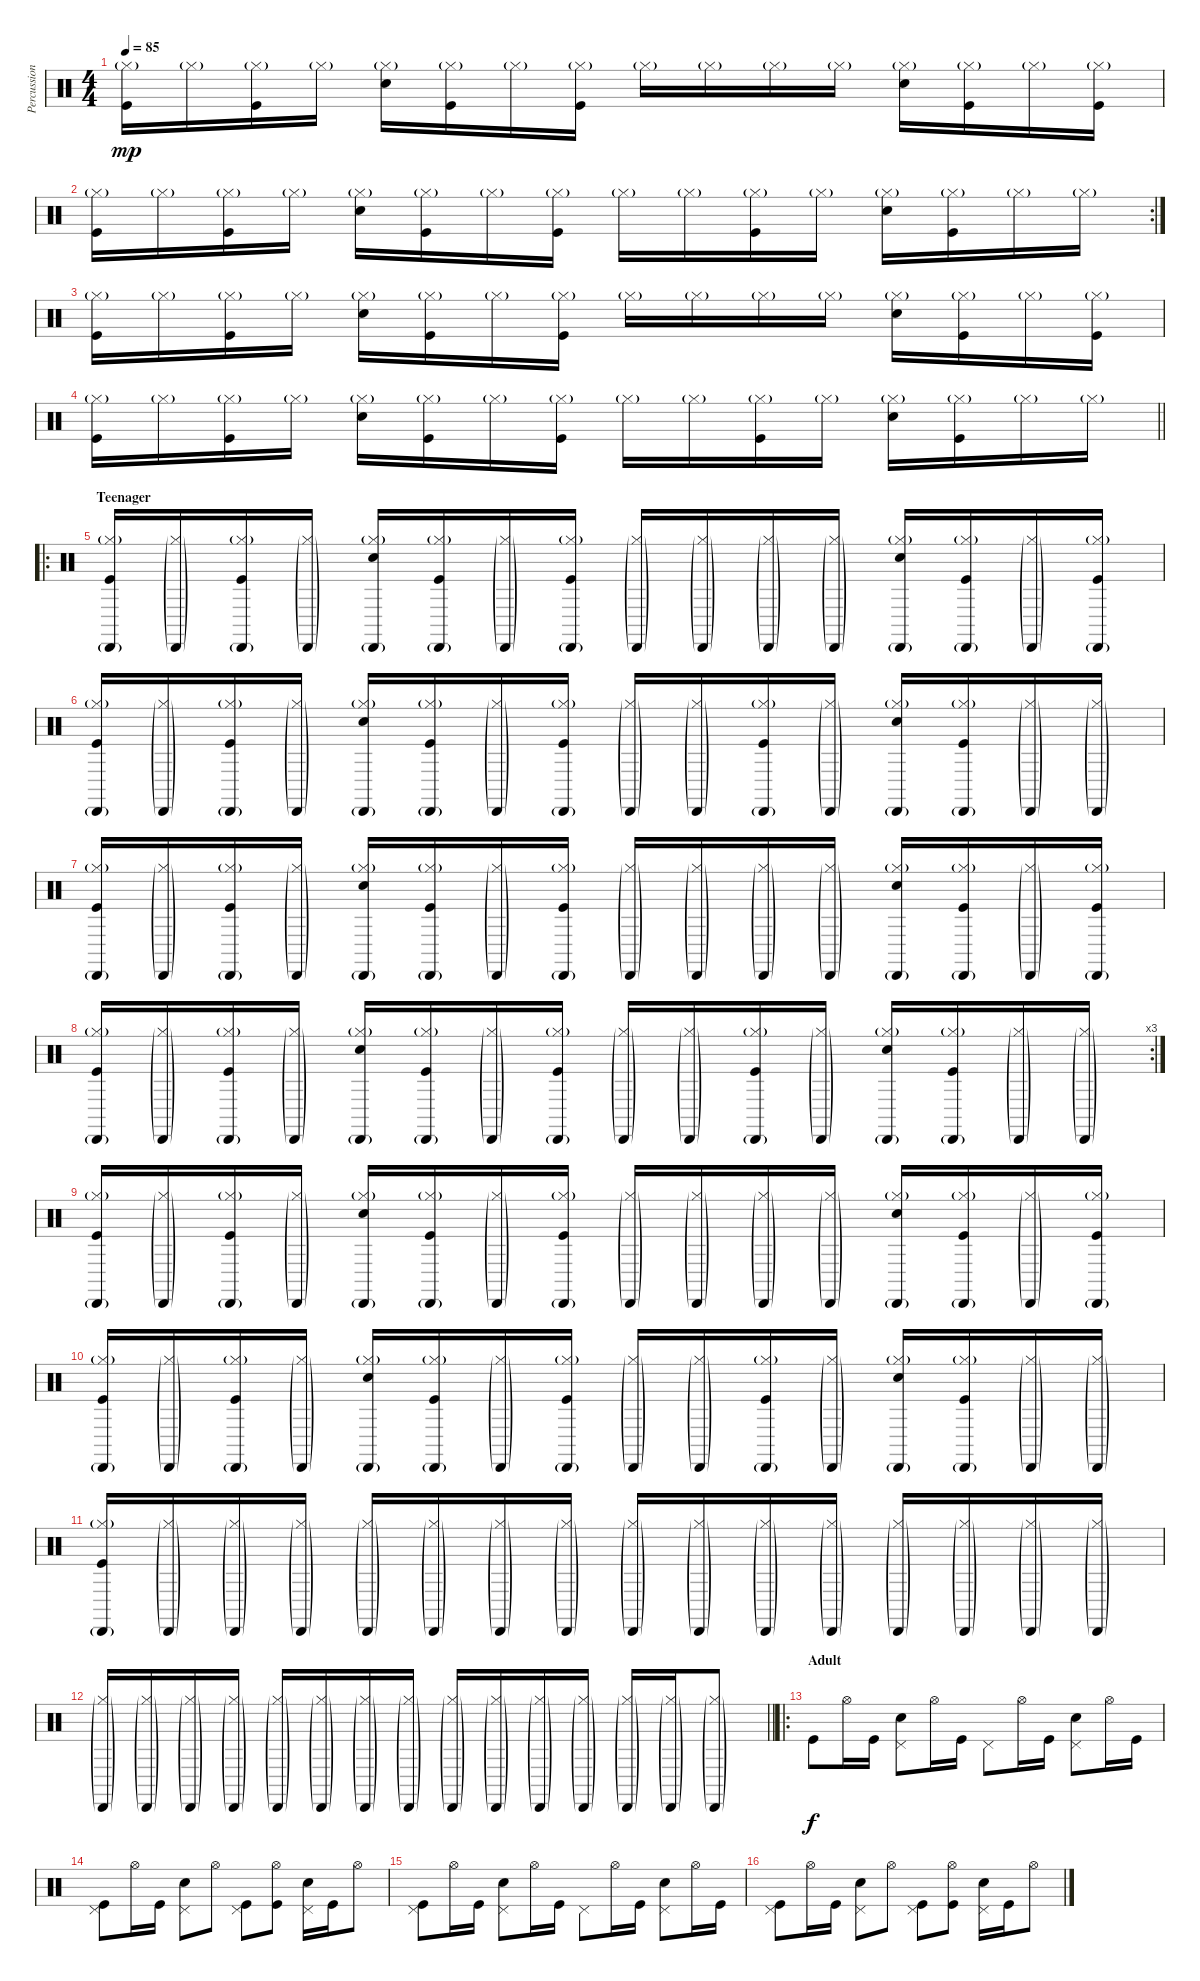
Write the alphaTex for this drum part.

\track ("Percussion" "Percussion") {instrument percussion}
\staff {score}
\articulation defaults
\ts (4 4)
\tempo 85
\clef neutral
\ks c
("Hi-Hat (closed)"{g} "Kick (hit)").16{dy mp} "Hi-Hat (closed)"{g}.16 ("Hi-Hat (closed)"{g} "Kick (hit)").16 "Hi-Hat (closed)"{g}.16 ("Hi-Hat (closed)"{g} "Hand Clap (hit)").16 ("Hi-Hat (closed)"{g} "Kick (hit)").16 "Hi-Hat (closed)"{g}.16 ("Hi-Hat (closed)"{g} "Kick (hit)").16 "Hi-Hat (closed)"{g}.16 "Hi-Hat (closed)"{g}.16 "Hi-Hat (closed)"{g}.16 "Hi-Hat (closed)"{g}.16 ("Hi-Hat (closed)"{g} "Hand Clap (hit)").16 ("Hi-Hat (closed)"{g} "Kick (hit)").16 "Hi-Hat (closed)"{g}.16 ("Hi-Hat (closed)"{g} "Kick (hit)").16 |
\rc 2
("Hi-Hat (closed)"{g} "Kick (hit)").16 "Hi-Hat (closed)"{g}.16 ("Hi-Hat (closed)"{g} "Kick (hit)").16 "Hi-Hat (closed)"{g}.16 ("Hi-Hat (closed)"{g} "Hand Clap (hit)").16 ("Hi-Hat (closed)"{g} "Kick (hit)").16 "Hi-Hat (closed)"{g}.16 ("Hi-Hat (closed)"{g} "Kick (hit)").16 "Hi-Hat (closed)"{g}.16 "Hi-Hat (closed)"{g}.16 ("Hi-Hat (closed)"{g} "Kick (hit)").16 "Hi-Hat (closed)"{g}.16 ("Hi-Hat (closed)"{g} "Hand Clap (hit)").16 ("Hi-Hat (closed)"{g} "Kick (hit)").16 "Hi-Hat (closed)"{g}.16 "Hi-Hat (closed)"{g}.16 |
("Hi-Hat (closed)"{g} "Kick (hit)").16 "Hi-Hat (closed)"{g}.16 ("Hi-Hat (closed)"{g} "Kick (hit)").16 "Hi-Hat (closed)"{g}.16 ("Hi-Hat (closed)"{g} "Hand Clap (hit)").16 ("Hi-Hat (closed)"{g} "Kick (hit)").16 "Hi-Hat (closed)"{g}.16 ("Hi-Hat (closed)"{g} "Kick (hit)").16 "Hi-Hat (closed)"{g}.16 "Hi-Hat (closed)"{g}.16 "Hi-Hat (closed)"{g}.16 "Hi-Hat (closed)"{g}.16 ("Hi-Hat (closed)"{g} "Hand Clap (hit)").16 ("Hi-Hat (closed)"{g} "Kick (hit)").16 "Hi-Hat (closed)"{g}.16 ("Hi-Hat (closed)"{g} "Kick (hit)").16 |
\barLineRight lightlight
("Hi-Hat (closed)"{g} "Kick (hit)").16 "Hi-Hat (closed)"{g}.16 ("Hi-Hat (closed)"{g} "Kick (hit)").16 "Hi-Hat (closed)"{g}.16 ("Hi-Hat (closed)"{g} "Hand Clap (hit)").16 ("Hi-Hat (closed)"{g} "Kick (hit)").16 "Hi-Hat (closed)"{g}.16 ("Hi-Hat (closed)"{g} "Kick (hit)").16 "Hi-Hat (closed)"{g}.16 "Hi-Hat (closed)"{g}.16 ("Hi-Hat (closed)"{g} "Kick (hit)").16 "Hi-Hat (closed)"{g}.16 ("Hi-Hat (closed)"{g} "Hand Clap (hit)").16 ("Hi-Hat (closed)"{g} "Kick (hit)").16 "Hi-Hat (closed)"{g}.16 "Hi-Hat (closed)"{g}.16 |
\ro
\section ("" "Teenager")
("Hi-Hat (closed)"{g} "Cabasa (hit)"{g} "Kick (hit)").16 ("Hi-Hat (closed)"{g} "Cabasa (hit)"{g}).16 ("Hi-Hat (closed)"{g} "Cabasa (hit)"{g} "Kick (hit)").16 ("Hi-Hat (closed)"{g} "Cabasa (hit)"{g}).16 ("Hi-Hat (closed)"{g} "Cabasa (hit)"{g} "Hand Clap (hit)").16 ("Hi-Hat (closed)"{g} "Cabasa (hit)"{g} "Kick (hit)").16 ("Hi-Hat (closed)"{g} "Cabasa (hit)"{g}).16 ("Hi-Hat (closed)"{g} "Cabasa (hit)"{g} "Kick (hit)").16 ("Hi-Hat (closed)"{g} "Cabasa (hit)"{g}).16 ("Hi-Hat (closed)"{g} "Cabasa (hit)"{g}).16 ("Hi-Hat (closed)"{g} "Cabasa (hit)"{g}).16 ("Hi-Hat (closed)"{g} "Cabasa (hit)"{g}).16 ("Hi-Hat (closed)"{g} "Cabasa (hit)"{g} "Hand Clap (hit)").16 ("Hi-Hat (closed)"{g} "Cabasa (hit)"{g} "Kick (hit)").16 ("Hi-Hat (closed)"{g} "Cabasa (hit)"{g}).16 ("Hi-Hat (closed)"{g} "Cabasa (hit)"{g} "Kick (hit)").16 |
("Hi-Hat (closed)"{g} "Cabasa (hit)"{g} "Kick (hit)").16 ("Hi-Hat (closed)"{g} "Cabasa (hit)"{g}).16 ("Hi-Hat (closed)"{g} "Cabasa (hit)"{g} "Kick (hit)").16 ("Hi-Hat (closed)"{g} "Cabasa (hit)"{g}).16 ("Hi-Hat (closed)"{g} "Cabasa (hit)"{g} "Hand Clap (hit)").16 ("Hi-Hat (closed)"{g} "Cabasa (hit)"{g} "Kick (hit)").16 ("Hi-Hat (closed)"{g} "Cabasa (hit)"{g}).16 ("Hi-Hat (closed)"{g} "Cabasa (hit)"{g} "Kick (hit)").16 ("Hi-Hat (closed)"{g} "Cabasa (hit)"{g}).16 ("Hi-Hat (closed)"{g} "Cabasa (hit)"{g}).16 ("Hi-Hat (closed)"{g} "Cabasa (hit)"{g} "Kick (hit)").16 ("Hi-Hat (closed)"{g} "Cabasa (hit)"{g}).16 ("Hi-Hat (closed)"{g} "Cabasa (hit)"{g} "Hand Clap (hit)").16 ("Hi-Hat (closed)"{g} "Cabasa (hit)"{g} "Kick (hit)").16 ("Hi-Hat (closed)"{g} "Cabasa (hit)"{g}).16 ("Hi-Hat (closed)"{g} "Cabasa (hit)"{g}).16 |
("Hi-Hat (closed)"{g} "Cabasa (hit)"{g} "Kick (hit)").16 ("Hi-Hat (closed)"{g} "Cabasa (hit)"{g}).16 ("Hi-Hat (closed)"{g} "Cabasa (hit)"{g} "Kick (hit)").16 ("Hi-Hat (closed)"{g} "Cabasa (hit)"{g}).16 ("Hi-Hat (closed)"{g} "Cabasa (hit)"{g} "Hand Clap (hit)").16 ("Hi-Hat (closed)"{g} "Cabasa (hit)"{g} "Kick (hit)").16 ("Hi-Hat (closed)"{g} "Cabasa (hit)"{g}).16 ("Hi-Hat (closed)"{g} "Cabasa (hit)"{g} "Kick (hit)").16 ("Hi-Hat (closed)"{g} "Cabasa (hit)"{g}).16 ("Hi-Hat (closed)"{g} "Cabasa (hit)"{g}).16 ("Hi-Hat (closed)"{g} "Cabasa (hit)"{g}).16 ("Hi-Hat (closed)"{g} "Cabasa (hit)"{g}).16 ("Hi-Hat (closed)"{g} "Cabasa (hit)"{g} "Hand Clap (hit)").16 ("Hi-Hat (closed)"{g} "Cabasa (hit)"{g} "Kick (hit)").16 ("Hi-Hat (closed)"{g} "Cabasa (hit)"{g}).16 ("Hi-Hat (closed)"{g} "Cabasa (hit)"{g} "Kick (hit)").16 |
\rc 3
("Hi-Hat (closed)"{g} "Cabasa (hit)"{g} "Kick (hit)").16 ("Hi-Hat (closed)"{g} "Cabasa (hit)"{g}).16 ("Hi-Hat (closed)"{g} "Cabasa (hit)"{g} "Kick (hit)").16 ("Hi-Hat (closed)"{g} "Cabasa (hit)"{g}).16 ("Hi-Hat (closed)"{g} "Cabasa (hit)"{g} "Hand Clap (hit)").16 ("Hi-Hat (closed)"{g} "Cabasa (hit)"{g} "Kick (hit)").16 ("Hi-Hat (closed)"{g} "Cabasa (hit)"{g}).16 ("Hi-Hat (closed)"{g} "Cabasa (hit)"{g} "Kick (hit)").16 ("Hi-Hat (closed)"{g} "Cabasa (hit)"{g}).16 ("Hi-Hat (closed)"{g} "Cabasa (hit)"{g}).16 ("Hi-Hat (closed)"{g} "Cabasa (hit)"{g} "Kick (hit)").16 ("Hi-Hat (closed)"{g} "Cabasa (hit)"{g}).16 ("Hi-Hat (closed)"{g} "Cabasa (hit)"{g} "Hand Clap (hit)").16 ("Hi-Hat (closed)"{g} "Cabasa (hit)"{g} "Kick (hit)").16 ("Hi-Hat (closed)"{g} "Cabasa (hit)"{g}).16 ("Hi-Hat (closed)"{g} "Cabasa (hit)"{g}).16 |
("Hi-Hat (closed)"{g} "Cabasa (hit)"{g} "Kick (hit)").16 ("Hi-Hat (closed)"{g} "Cabasa (hit)"{g}).16 ("Hi-Hat (closed)"{g} "Cabasa (hit)"{g} "Kick (hit)").16 ("Hi-Hat (closed)"{g} "Cabasa (hit)"{g}).16 ("Hi-Hat (closed)"{g} "Cabasa (hit)"{g} "Hand Clap (hit)").16 ("Hi-Hat (closed)"{g} "Cabasa (hit)"{g} "Kick (hit)").16 ("Hi-Hat (closed)"{g} "Cabasa (hit)"{g}).16 ("Hi-Hat (closed)"{g} "Cabasa (hit)"{g} "Kick (hit)").16 ("Hi-Hat (closed)"{g} "Cabasa (hit)"{g}).16 ("Hi-Hat (closed)"{g} "Cabasa (hit)"{g}).16 ("Hi-Hat (closed)"{g} "Cabasa (hit)"{g}).16 ("Hi-Hat (closed)"{g} "Cabasa (hit)"{g}).16 ("Hi-Hat (closed)"{g} "Cabasa (hit)"{g} "Hand Clap (hit)").16 ("Hi-Hat (closed)"{g} "Cabasa (hit)"{g} "Kick (hit)").16 ("Hi-Hat (closed)"{g} "Cabasa (hit)"{g}).16 ("Hi-Hat (closed)"{g} "Cabasa (hit)"{g} "Kick (hit)").16 |
("Hi-Hat (closed)"{g} "Cabasa (hit)"{g} "Kick (hit)").16 ("Hi-Hat (closed)"{g} "Cabasa (hit)"{g}).16 ("Hi-Hat (closed)"{g} "Cabasa (hit)"{g} "Kick (hit)").16 ("Hi-Hat (closed)"{g} "Cabasa (hit)"{g}).16 ("Hi-Hat (closed)"{g} "Cabasa (hit)"{g} "Hand Clap (hit)").16 ("Hi-Hat (closed)"{g} "Cabasa (hit)"{g} "Kick (hit)").16 ("Hi-Hat (closed)"{g} "Cabasa (hit)"{g}).16 ("Hi-Hat (closed)"{g} "Cabasa (hit)"{g} "Kick (hit)").16 ("Hi-Hat (closed)"{g} "Cabasa (hit)"{g}).16 ("Hi-Hat (closed)"{g} "Cabasa (hit)"{g}).16 ("Hi-Hat (closed)"{g} "Cabasa (hit)"{g} "Kick (hit)").16 ("Hi-Hat (closed)"{g} "Cabasa (hit)"{g}).16 ("Hi-Hat (closed)"{g} "Cabasa (hit)"{g} "Hand Clap (hit)").16 ("Hi-Hat (closed)"{g} "Cabasa (hit)"{g} "Kick (hit)").16 ("Hi-Hat (closed)"{g} "Cabasa (hit)"{g}).16 ("Hi-Hat (closed)"{g} "Cabasa (hit)"{g}).16 |
("Hi-Hat (closed)"{g} "Cabasa (hit)"{g} "Kick (hit)").16{volume 4} ("Hi-Hat (closed)"{g} "Cabasa (hit)"{g}).16 ("Hi-Hat (closed)"{g} "Cabasa (hit)"{g}).16 ("Hi-Hat (closed)"{g} "Cabasa (hit)"{g}).16 ("Hi-Hat (closed)"{g} "Cabasa (hit)"{g}).16 ("Hi-Hat (closed)"{g} "Cabasa (hit)"{g}).16 ("Hi-Hat (closed)"{g} "Cabasa (hit)"{g}).16 ("Hi-Hat (closed)"{g} "Cabasa (hit)"{g}).16 ("Hi-Hat (closed)"{g} "Cabasa (hit)"{g}).16 ("Hi-Hat (closed)"{g} "Cabasa (hit)"{g}).16 ("Hi-Hat (closed)"{g} "Cabasa (hit)"{g}).16 ("Hi-Hat (closed)"{g} "Cabasa (hit)"{g}).16 ("Hi-Hat (closed)"{g} "Cabasa (hit)"{g}).16 ("Hi-Hat (closed)"{g} "Cabasa (hit)"{g}).16 ("Hi-Hat (closed)"{g} "Cabasa (hit)"{g}).16 ("Hi-Hat (closed)"{g} "Cabasa (hit)"{g}).16 |
\barLineRight lightlight
("Hi-Hat (closed)"{g} "Cabasa (hit)"{g}).16 ("Hi-Hat (closed)"{g} "Cabasa (hit)"{g}).16 ("Hi-Hat (closed)"{g} "Cabasa (hit)"{g}).16 ("Hi-Hat (closed)"{g} "Cabasa (hit)"{g}).16 ("Hi-Hat (closed)"{g} "Cabasa (hit)"{g}).16 ("Hi-Hat (closed)"{g} "Cabasa (hit)"{g}).16 ("Hi-Hat (closed)"{g} "Cabasa (hit)"{g}).16 ("Hi-Hat (closed)"{g} "Cabasa (hit)"{g}).16 ("Hi-Hat (closed)"{g} "Cabasa (hit)"{g}).16 ("Hi-Hat (closed)"{g} "Cabasa (hit)"{g}).16 ("Hi-Hat (closed)"{g} "Cabasa (hit)"{g}).16 ("Hi-Hat (closed)"{g} "Cabasa (hit)"{g}).16 ("Hi-Hat (closed)"{g} "Cabasa (hit)"{g}).16 ("Hi-Hat (closed)"{g} "Cabasa (hit)"{g}).16 ("Hi-Hat (closed)"{g} "Cabasa (hit)"{g}).8 |
\ro
\section ("" "Adult")
"Kick (hit)".8{dy f volume 10} "Hi-Hat (open)".16 "Kick (hit)".16 ("Pedal Hi-Hat (hit)" "Snare (hit) 2").8 "Hi-Hat (open)".16 "Kick (hit)".16 "Pedal Hi-Hat (hit)".8 "Hi-Hat (open)".16 "Kick (hit)".16 ("Pedal Hi-Hat (hit)" "Snare (hit) 2").8 "Hi-Hat (open)".16 "Kick (hit)".16 |
("Pedal Hi-Hat (hit)" "Kick (hit)").8 "Hi-Hat (open)".16 "Kick (hit)".16 ("Pedal Hi-Hat (hit)" "Snare (hit) 2").8 "Hi-Hat (open)".8 ("Pedal Hi-Hat (hit)" "Kick (hit)").8 ("Hi-Hat (open)" "Kick (hit)").8 ("Pedal Hi-Hat (hit)" "Snare (hit) 2").16 "Kick (hit)".16 "Hi-Hat (open)".8 |
("Pedal Hi-Hat (hit)" "Kick (hit)").8 "Hi-Hat (open)".16 "Kick (hit)".16 ("Pedal Hi-Hat (hit)" "Snare (hit) 2").8 "Hi-Hat (open)".16 "Kick (hit)".16 "Pedal Hi-Hat (hit)".8 "Hi-Hat (open)".16 "Kick (hit)".16 ("Pedal Hi-Hat (hit)" "Snare (hit) 2").8 "Hi-Hat (open)".16 "Kick (hit)".16 |
("Pedal Hi-Hat (hit)" "Kick (hit)").8 "Hi-Hat (open)".16 "Kick (hit)".16 ("Pedal Hi-Hat (hit)" "Snare (hit) 2").8 "Hi-Hat (open)".8 ("Pedal Hi-Hat (hit)" "Kick (hit)").8 ("Hi-Hat (open)" "Kick (hit)").8 ("Pedal Hi-Hat (hit)" "Snare (hit) 2").16 "Kick (hit)".16 "Hi-Hat (open)".8
